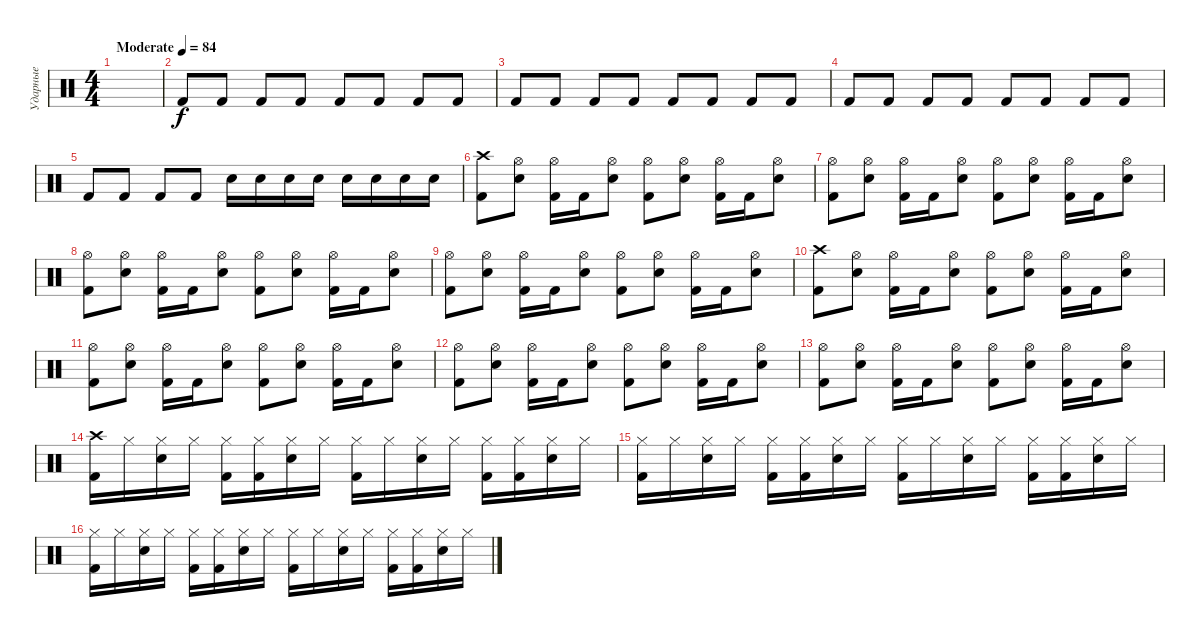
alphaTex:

\track ("Ударные" "Ударные") {instrument percussion}
\staff {score}
\articulation defaults
\ts (4 4)
\tempo (84 "Moderate")
\clef neutral
\ks c
|
"Kick (hit) 2".8 "Kick (hit) 2".8 "Kick (hit) 2".8 "Kick (hit) 2".8 "Kick (hit) 2".8 "Kick (hit) 2".8 "Kick (hit) 2".8 "Kick (hit) 2".8 |
"Kick (hit) 2".8 "Kick (hit) 2".8 "Kick (hit) 2".8 "Kick (hit) 2".8 "Kick (hit) 2".8 "Kick (hit) 2".8 "Kick (hit) 2".8 "Kick (hit) 2".8 |
"Kick (hit) 2".8 "Kick (hit) 2".8 "Kick (hit) 2".8 "Kick (hit) 2".8 "Kick (hit) 2".8 "Kick (hit) 2".8 "Kick (hit) 2".8 "Kick (hit) 2".8 |
"Kick (hit) 2".8 "Kick (hit) 2".8 "Kick (hit) 2".8 "Kick (hit) 2".8 "Snare (hit) 2".16 "Snare (hit) 2".16 "Snare (hit) 2".16 "Snare (hit) 2".16 "Snare (hit) 2".16 "Snare (hit) 2".16 "Snare (hit) 2".16 "Snare (hit) 2".16 |
("Crash high (hit)" "Kick (hit) 2").8 ("Hi-Hat (open)" "Snare (hit) 2").8 ("Hi-Hat (open)" "Kick (hit) 2").16 "Kick (hit) 2".16 ("Hi-Hat (open)" "Snare (hit) 2").8 ("Hi-Hat (open)" "Kick (hit) 2").8 ("Hi-Hat (open)" "Snare (hit) 2").8 ("Hi-Hat (open)" "Kick (hit) 2").16 "Kick (hit) 2".16 ("Hi-Hat (open)" "Snare (hit) 2").8 |
("Hi-Hat (open)" "Kick (hit) 2").8 ("Hi-Hat (open)" "Snare (hit) 2").8 ("Hi-Hat (open)" "Kick (hit) 2").16 "Kick (hit) 2".16 ("Hi-Hat (open)" "Snare (hit) 2").8 ("Hi-Hat (open)" "Kick (hit) 2").8 ("Hi-Hat (open)" "Snare (hit) 2").8 ("Hi-Hat (open)" "Kick (hit) 2").16 "Kick (hit) 2".16 ("Hi-Hat (open)" "Snare (hit) 2").8 |
("Hi-Hat (open)" "Kick (hit) 2").8 ("Hi-Hat (open)" "Snare (hit) 2").8 ("Hi-Hat (open)" "Kick (hit) 2").16 "Kick (hit) 2".16 ("Hi-Hat (open)" "Snare (hit) 2").8 ("Hi-Hat (open)" "Kick (hit) 2").8 ("Hi-Hat (open)" "Snare (hit) 2").8 ("Hi-Hat (open)" "Kick (hit) 2").16 "Kick (hit) 2".16 ("Hi-Hat (open)" "Snare (hit) 2").8 |
("Hi-Hat (open)" "Kick (hit) 2").8 ("Hi-Hat (open)" "Snare (hit) 2").8 ("Hi-Hat (open)" "Kick (hit) 2").16 "Kick (hit) 2".16 ("Hi-Hat (open)" "Snare (hit) 2").8 ("Hi-Hat (open)" "Kick (hit) 2").8 ("Hi-Hat (open)" "Snare (hit) 2").8 ("Hi-Hat (open)" "Kick (hit) 2").16 "Kick (hit) 2".16 ("Hi-Hat (open)" "Snare (hit) 2").8 |
("Crash high (hit)" "Kick (hit) 2").8 ("Hi-Hat (open)" "Snare (hit) 2").8 ("Hi-Hat (open)" "Kick (hit) 2").16 "Kick (hit) 2".16 ("Hi-Hat (open)" "Snare (hit) 2").8 ("Hi-Hat (open)" "Kick (hit) 2").8 ("Hi-Hat (open)" "Snare (hit) 2").8 ("Hi-Hat (open)" "Kick (hit) 2").16 "Kick (hit) 2".16 ("Hi-Hat (open)" "Snare (hit) 2").8 |
("Hi-Hat (open)" "Kick (hit) 2").8 ("Hi-Hat (open)" "Snare (hit) 2").8 ("Hi-Hat (open)" "Kick (hit) 2").16 "Kick (hit) 2".16 ("Hi-Hat (open)" "Snare (hit) 2").8 ("Hi-Hat (open)" "Kick (hit) 2").8 ("Hi-Hat (open)" "Snare (hit) 2").8 ("Hi-Hat (open)" "Kick (hit) 2").16 "Kick (hit) 2".16 ("Hi-Hat (open)" "Snare (hit) 2").8 |
("Hi-Hat (open)" "Kick (hit) 2").8 ("Hi-Hat (open)" "Snare (hit) 2").8 ("Hi-Hat (open)" "Kick (hit) 2").16 "Kick (hit) 2".16 ("Hi-Hat (open)" "Snare (hit) 2").8 ("Hi-Hat (open)" "Kick (hit) 2").8 ("Hi-Hat (open)" "Snare (hit) 2").8 ("Hi-Hat (open)" "Kick (hit) 2").16 "Kick (hit) 2".16 ("Hi-Hat (open)" "Snare (hit) 2").8 |
("Hi-Hat (open)" "Kick (hit) 2").8 ("Hi-Hat (open)" "Snare (hit) 2").8 ("Hi-Hat (open)" "Kick (hit) 2").16 "Kick (hit) 2".16 ("Hi-Hat (open)" "Snare (hit) 2").8 ("Hi-Hat (open)" "Kick (hit) 2").8 ("Hi-Hat (open)" "Snare (hit) 2").8 ("Hi-Hat (open)" "Kick (hit) 2").16 "Kick (hit) 2".16 ("Hi-Hat (open)" "Snare (hit) 2").8 |
("Crash high (hit)" "Kick (hit) 2").16 "Hi-Hat (closed)".16 ("Hi-Hat (closed)" "Snare (hit) 2").16 "Hi-Hat (closed)".16 ("Hi-Hat (closed)" "Kick (hit) 2").16 ("Hi-Hat (closed)" "Kick (hit) 2").16 ("Hi-Hat (closed)" "Snare (hit) 2").16 "Hi-Hat (closed)".16 ("Hi-Hat (closed)" "Kick (hit) 2").16 "Hi-Hat (closed)".16 ("Hi-Hat (closed)" "Snare (hit) 2").16 "Hi-Hat (closed)".16 ("Hi-Hat (closed)" "Kick (hit) 2").16 ("Hi-Hat (closed)" "Kick (hit) 2").16 ("Hi-Hat (closed)" "Snare (hit) 2").16 "Hi-Hat (closed)".16 |
("Hi-Hat (closed)" "Kick (hit) 2").16 "Hi-Hat (closed)".16 ("Hi-Hat (closed)" "Snare (hit) 2").16 "Hi-Hat (closed)".16 ("Hi-Hat (closed)" "Kick (hit) 2").16 ("Hi-Hat (closed)" "Kick (hit) 2").16 ("Hi-Hat (closed)" "Snare (hit) 2").16 "Hi-Hat (closed)".16 ("Hi-Hat (closed)" "Kick (hit) 2").16 "Hi-Hat (closed)".16 ("Hi-Hat (closed)" "Snare (hit) 2").16 "Hi-Hat (closed)".16 ("Hi-Hat (closed)" "Kick (hit) 2").16 ("Hi-Hat (closed)" "Kick (hit) 2").16 ("Hi-Hat (closed)" "Snare (hit) 2").16 "Hi-Hat (closed)".16 |
("Hi-Hat (closed)" "Kick (hit) 2").16 "Hi-Hat (closed)".16 ("Hi-Hat (closed)" "Snare (hit) 2").16 "Hi-Hat (closed)".16 ("Hi-Hat (closed)" "Kick (hit) 2").16 ("Hi-Hat (closed)" "Kick (hit) 2").16 ("Hi-Hat (closed)" "Snare (hit) 2").16 "Hi-Hat (closed)".16 ("Hi-Hat (closed)" "Kick (hit) 2").16 "Hi-Hat (closed)".16 ("Hi-Hat (closed)" "Snare (hit) 2").16 "Hi-Hat (closed)".16 ("Hi-Hat (closed)" "Kick (hit) 2").16 ("Hi-Hat (closed)" "Kick (hit) 2").16 ("Hi-Hat (closed)" "Snare (hit) 2").16 "Hi-Hat (closed)".16
